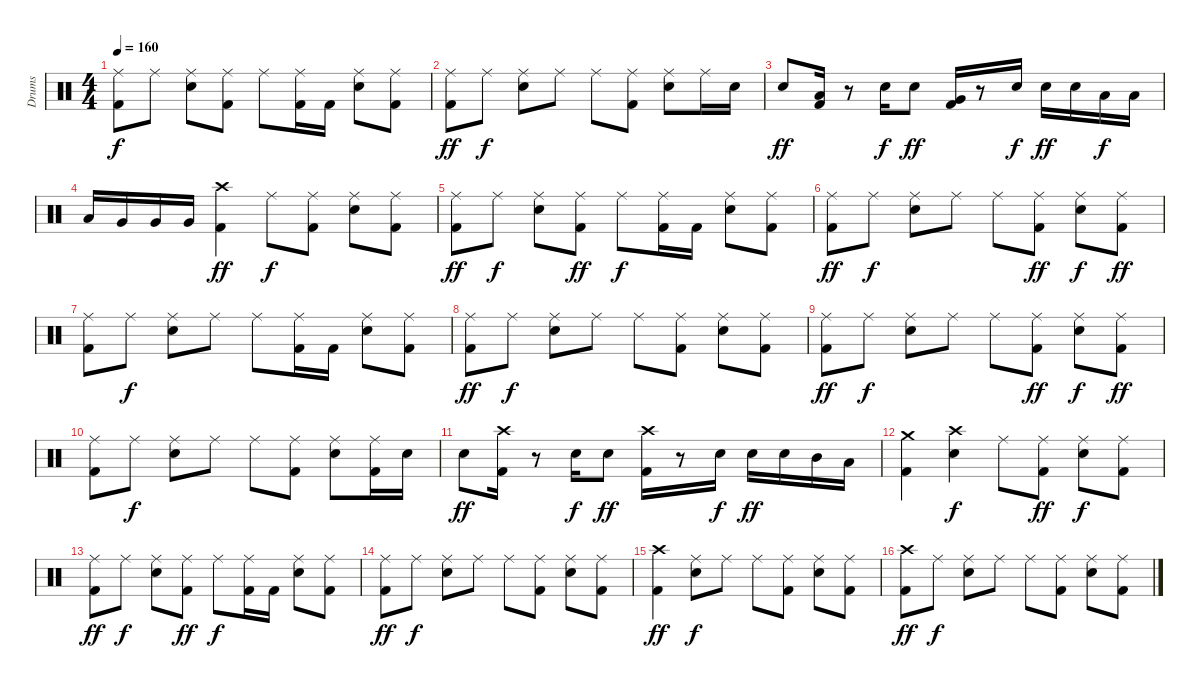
\track ("Drums" "Drums") {instrument percussion}
\staff {score}
\articulation defaults
\ts (4 4)
\tempo 160
\clef neutral
\ks c
("Ride (middle)" "Kick (hit) 2").8{dy f} "Ride (middle)".8 ("Ride (middle)" "Snare (hit) 2").8 ("Ride (middle)" "Kick (hit) 2").8 "Ride (middle)".8 ("Ride (middle)" "Kick (hit) 2").16 "Kick (hit) 2".16 ("Ride (middle)" "Snare (hit) 2").8 ("Ride (middle)" "Kick (hit) 2").8 |
("Ride (middle)" "Kick (hit) 2").8{dy ff} "Ride (middle)".8{dy f} ("Ride (middle)" "Snare (hit) 2").8 "Ride (middle)".8 "Ride (middle)".8 ("Ride (middle)" "Kick (hit) 2").8 ("Ride (middle)" "Snare (hit) 2").8 "Ride (middle)".16 "Snare (hit) 2".16 |
"Snare (hit) 2".8{dy ff} ("Low Tom (hit)" "Kick (hit) 2").16 r.8 "Snare (hit) 2".16{dy f} "Snare (hit) 2".8{dy ff} ("Very Low Tom (hit)" "Kick (hit) 2").16 r.8 "Snare (hit) 2".16{dy f} "Snare (hit) 2".16{dy ff} "Snare (hit) 2".16 "Low Tom (hit)".16{dy f} "Low Tom (hit)".16 |
"Low Tom (hit)".16 "Very Low Tom (hit)".16 "Very Low Tom (hit)".16 "Very Low Tom (hit)".16 ("Crash high (hit)" "Kick (hit) 2").4{dy ff} "Ride (middle)".8{dy f} ("Ride (middle)" "Kick (hit) 2").8 ("Ride (middle)" "Snare (hit) 2").8 ("Ride (middle)" "Kick (hit) 2").8 |
("Ride (middle)" "Kick (hit) 2").8{dy ff} "Ride (middle)".8{dy f} ("Ride (middle)" "Snare (hit) 2").8 ("Ride (middle)" "Kick (hit) 2").8{dy ff} "Ride (middle)".8{dy f} ("Ride (middle)" "Kick (hit) 2").16 "Kick (hit) 2".16 ("Ride (middle)" "Snare (hit) 2").8 ("Kick (hit) 2" "Ride (middle)").8 |
("Ride (middle)" "Kick (hit) 2").8{dy ff} "Ride (middle)".8{dy f} ("Ride (middle)" "Snare (hit) 2").8 "Ride (middle)".8 "Ride (middle)".8 ("Ride (middle)" "Kick (hit) 2").8{dy ff} ("Ride (middle)" "Snare (hit) 2").8{dy f} ("Ride (middle)" "Kick (hit) 2").8{dy ff} |
("Ride (middle)" "Kick (hit) 2").8 "Ride (middle)".8{dy f} ("Ride (middle)" "Snare (hit) 2").8 "Ride (middle)".8 "Ride (middle)".8 ("Ride (middle)" "Kick (hit) 2").16 "Kick (hit) 2".16 ("Ride (middle)" "Snare (hit) 2").8 ("Ride (middle)" "Kick (hit) 2").8 |
("Ride (middle)" "Kick (hit) 2").8{dy ff} "Ride (middle)".8{dy f} ("Ride (middle)" "Snare (hit) 2").8 "Ride (middle)".8 "Ride (middle)".8 ("Ride (middle)" "Kick (hit) 2").8 ("Ride (middle)" "Snare (hit) 2").8 ("Ride (middle)" "Kick (hit) 2").8 |
("Ride (middle)" "Kick (hit) 2").8{dy ff} "Ride (middle)".8{dy f} ("Ride (middle)" "Snare (hit) 2").8 "Ride (middle)".8 "Ride (middle)".8 ("Ride (middle)" "Kick (hit) 2").8{dy ff} ("Ride (middle)" "Snare (hit) 2").8{dy f} ("Ride (middle)" "Kick (hit) 2").8{dy ff} |
("Ride (middle)" "Kick (hit) 2").8 "Ride (middle)".8{dy f} ("Ride (middle)" "Snare (hit) 2").8 "Ride (middle)".8 "Ride (middle)".8 ("Ride (middle)" "Kick (hit) 2").8 ("Ride (middle)" "Snare (hit) 2").8 ("Ride (middle)" "Kick (hit) 2").16 "Snare (hit) 2".16 |
"Snare (hit) 2".8{dy ff} ("Crash high (hit)" "Kick (hit) 2").16 r.8 "Snare (hit) 2".16{dy f} "Snare (hit) 2".8{dy ff} ("Crash high (hit)" "Kick (hit) 2").16 r.8 "Snare (hit) 2".16{dy f} "Snare (hit) 2".16{dy ff} "Snare (hit) 2".16 "Mid Tom (hit)".16 "Low Tom (hit)".16 |
("Crash medium (hit)" "Kick (hit) 2").4 ("Crash high (hit)" "Snare (hit) 2").4{dy f} "Ride (middle)".8 ("Ride (middle)" "Kick (hit) 2").8{dy ff} ("Ride (middle)" "Snare (hit) 2").8{dy f} ("Ride (middle)" "Kick (hit) 2").8 |
("Ride (middle)" "Kick (hit) 2").8{dy ff} "Ride (middle)".8{dy f} ("Ride (middle)" "Snare (hit) 2").8 ("Ride (middle)" "Kick (hit) 2").8{dy ff} "Ride (middle)".8{dy f} ("Ride (middle)" "Kick (hit) 2").16 "Kick (hit) 2".16 ("Ride (middle)" "Snare (hit) 2").8 ("Ride (middle)" "Kick (hit) 2").8 |
("Ride (middle)" "Kick (hit) 2").8{dy ff} "Ride (middle)".8{dy f} ("Ride (middle)" "Snare (hit) 2").8 "Ride (middle)".8 "Ride (middle)".8 ("Ride (middle)" "Kick (hit) 2").8 ("Ride (middle)" "Snare (hit) 2").8 ("Ride (middle)" "Kick (hit) 2").8 |
("Crash high (hit)" "Kick (hit) 2").4{dy ff} ("Ride (middle)" "Snare (hit) 2").8{dy f} "Ride (middle)".8 "Ride (middle)".8 ("Ride (middle)" "Kick (hit) 2").8 ("Ride (middle)" "Snare (hit) 2").8 ("Kick (hit) 2" "Ride (middle)").8 |
("Kick (hit) 2" "Crash high (hit)").8{dy ff} "Ride (middle)".8{dy f} ("Ride (middle)" "Snare (hit) 2").8 "Ride (middle)".8 "Ride (middle)".8 ("Ride (middle)" "Kick (hit) 2").8 ("Ride (middle)" "Snare (hit) 2").8 ("Ride (middle)" "Kick (hit) 2").8
